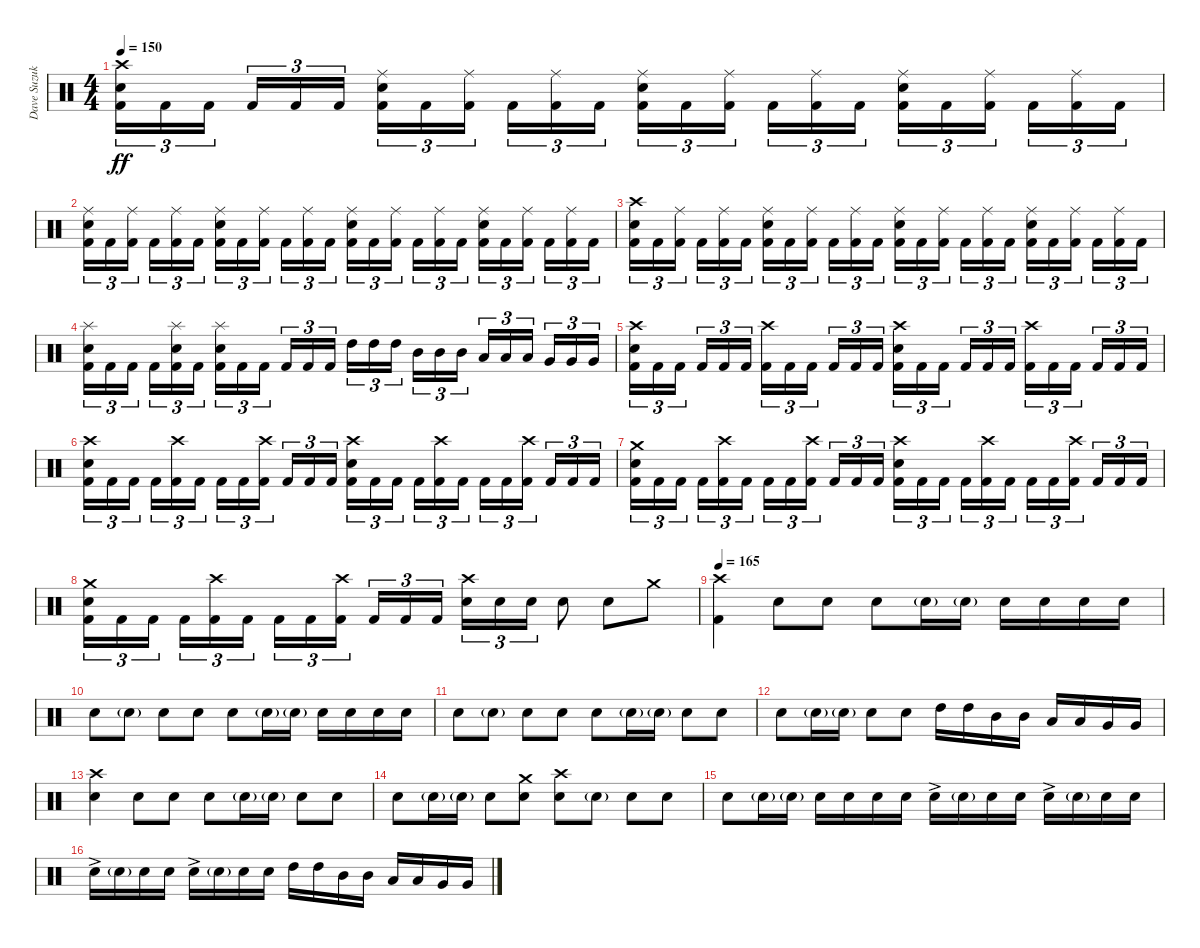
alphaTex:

\track ("Dave Suzuki - Drums" "Dave Suzuk") {instrument percussion}
\staff {score}
\articulation defaults
\ts (4 4)
\tempo 150
\clef neutral
\ks c
("Crash high (hit)" "Electric Snare (hit)" "Kick (hit) 2").16{tu (3 2) dy ff} "Kick (hit) 2".16{tu (3 2)} "Kick (hit) 2".16{tu (3 2) beam splitsecondary} "Kick (hit) 2".16{tu (3 2)} "Kick (hit) 2".16{tu (3 2)} "Kick (hit) 2".16{tu (3 2)} ("Ride (middle)" "Electric Snare (hit)" "Kick (hit) 2").16{tu (3 2)} "Kick (hit) 2".16{tu (3 2)} ("Ride (middle)" "Kick (hit) 2").16{tu (3 2) beam splitsecondary} "Kick (hit) 2".16{tu (3 2)} ("Ride (middle)" "Kick (hit) 2").16{tu (3 2)} "Kick (hit) 2".16{tu (3 2)} ("Ride (middle)" "Electric Snare (hit)" "Kick (hit) 2").16{tu (3 2)} "Kick (hit) 2".16{tu (3 2)} ("Ride (middle)" "Kick (hit) 2").16{tu (3 2) beam splitsecondary} "Kick (hit) 2".16{tu (3 2)} ("Ride (middle)" "Kick (hit) 2").16{tu (3 2)} "Kick (hit) 2".16{tu (3 2)} ("Ride (middle)" "Electric Snare (hit)" "Kick (hit) 2").16{tu (3 2)} "Kick (hit) 2".16{tu (3 2)} ("Ride (middle)" "Kick (hit) 2").16{tu (3 2) beam splitsecondary} "Kick (hit) 2".16{tu (3 2)} ("Ride (middle)" "Kick (hit) 2").16{tu (3 2)} "Kick (hit) 2".16{tu (3 2)} |
("Ride (middle)" "Electric Snare (hit)" "Kick (hit) 2").16{tu (3 2)} "Kick (hit) 2".16{tu (3 2)} ("Ride (middle)" "Kick (hit) 2").16{tu (3 2) beam splitsecondary} "Kick (hit) 2".16{tu (3 2)} ("Ride (middle)" "Kick (hit) 2").16{tu (3 2)} "Kick (hit) 2".16{tu (3 2)} ("Ride (middle)" "Electric Snare (hit)" "Kick (hit) 2").16{tu (3 2)} "Kick (hit) 2".16{tu (3 2)} ("Ride (middle)" "Kick (hit) 2").16{tu (3 2) beam splitsecondary} "Kick (hit) 2".16{tu (3 2)} ("Ride (middle)" "Kick (hit) 2").16{tu (3 2)} "Kick (hit) 2".16{tu (3 2)} ("Ride (middle)" "Electric Snare (hit)" "Kick (hit) 2").16{tu (3 2)} "Kick (hit) 2".16{tu (3 2)} ("Ride (middle)" "Kick (hit) 2").16{tu (3 2) beam splitsecondary} "Kick (hit) 2".16{tu (3 2)} ("Ride (middle)" "Kick (hit) 2").16{tu (3 2)} "Kick (hit) 2".16{tu (3 2)} ("Ride (middle)" "Electric Snare (hit)" "Kick (hit) 2").16{tu (3 2)} "Kick (hit) 2".16{tu (3 2)} ("Ride (middle)" "Kick (hit) 2").16{tu (3 2) beam splitsecondary} "Kick (hit) 2".16{tu (3 2)} ("Ride (middle)" "Kick (hit) 2").16{tu (3 2)} "Kick (hit) 2".16{tu (3 2)} |
("Crash high (hit)" "Electric Snare (hit)" "Kick (hit) 2").16{tu (3 2)} "Kick (hit) 2".16{tu (3 2)} ("Ride (middle)" "Kick (hit) 2").16{tu (3 2) beam splitsecondary} "Kick (hit) 2".16{tu (3 2)} ("Ride (middle)" "Kick (hit) 2").16{tu (3 2)} "Kick (hit) 2".16{tu (3 2)} ("Ride (middle)" "Electric Snare (hit)" "Kick (hit) 2").16{tu (3 2)} "Kick (hit) 2".16{tu (3 2)} ("Ride (middle)" "Kick (hit) 2").16{tu (3 2) beam splitsecondary} "Kick (hit) 2".16{tu (3 2)} ("Ride (middle)" "Kick (hit) 2").16{tu (3 2)} "Kick (hit) 2".16{tu (3 2)} ("Ride (middle)" "Electric Snare (hit)" "Kick (hit) 2").16{tu (3 2)} "Kick (hit) 2".16{tu (3 2)} ("Ride (middle)" "Kick (hit) 2").16{tu (3 2) beam splitsecondary} "Kick (hit) 2".16{tu (3 2)} ("Ride (middle)" "Kick (hit) 2").16{tu (3 2)} "Kick (hit) 2".16{tu (3 2)} ("Ride (middle)" "Electric Snare (hit)" "Kick (hit) 2").16{tu (3 2)} "Kick (hit) 2".16{tu (3 2)} ("Ride (middle)" "Kick (hit) 2").16{tu (3 2) beam splitsecondary} "Kick (hit) 2".16{tu (3 2)} ("Ride (middle)" "Kick (hit) 2").16{tu (3 2)} "Kick (hit) 2".16{tu (3 2)} |
("Splash (hit)" "Electric Snare (hit)" "Kick (hit) 2").16{tu (3 2)} "Kick (hit) 2".16{tu (3 2)} "Kick (hit) 2".16{tu (3 2) beam splitsecondary} "Kick (hit) 2".16{tu (3 2)} ("Splash (hit)" "Electric Snare (hit)" "Kick (hit) 2").16{tu (3 2)} "Kick (hit) 2".16{tu (3 2)} ("Splash (hit)" "Electric Snare (hit)" "Kick (hit) 2").16{tu (3 2)} "Kick (hit) 2".16{tu (3 2)} "Kick (hit) 2".16{tu (3 2) beam splitsecondary} "Kick (hit) 2".16{tu (3 2)} "Kick (hit) 2".16{tu (3 2)} "Kick (hit) 2".16{tu (3 2)} "High Tom (hit)".16{tu (3 2)} "High Tom (hit)".16{tu (3 2)} "High Tom (hit)".16{tu (3 2) beam splitsecondary} "Mid Tom (hit)".16{tu (3 2)} "Mid Tom (hit)".16{tu (3 2)} "Mid Tom (hit)".16{tu (3 2)} "Low Tom (hit)".16{tu (3 2)} "Low Tom (hit)".16{tu (3 2)} "Low Tom (hit)".16{tu (3 2) beam splitsecondary} "Very Low Tom (hit)".16{tu (3 2)} "Very Low Tom (hit)".16{tu (3 2)} "Very Low Tom (hit)".16{tu (3 2)} |
("Crash high (hit)" "Electric Snare (hit)" "Kick (hit) 2").16{tu (3 2)} "Kick (hit) 2".16{tu (3 2)} "Kick (hit) 2".16{tu (3 2) beam splitsecondary} "Kick (hit) 2".16{tu (3 2)} "Kick (hit) 2".16{tu (3 2)} "Kick (hit) 2".16{tu (3 2)} ("Crash high (hit)" "Kick (hit) 2").16{tu (3 2)} "Kick (hit) 2".16{tu (3 2)} "Kick (hit) 2".16{tu (3 2) beam splitsecondary} "Kick (hit) 2".16{tu (3 2)} "Kick (hit) 2".16{tu (3 2)} "Kick (hit) 2".16{tu (3 2)} ("Crash high (hit)" "Electric Snare (hit)" "Kick (hit) 2").16{tu (3 2)} "Kick (hit) 2".16{tu (3 2)} "Kick (hit) 2".16{tu (3 2) beam splitsecondary} "Kick (hit) 2".16{tu (3 2)} "Kick (hit) 2".16{tu (3 2)} "Kick (hit) 2".16{tu (3 2)} ("Crash high (hit)" "Kick (hit) 2").16{tu (3 2)} "Kick (hit) 2".16{tu (3 2)} "Kick (hit) 2".16{tu (3 2) beam splitsecondary} "Kick (hit) 2".16{tu (3 2)} "Kick (hit) 2".16{tu (3 2)} "Kick (hit) 2".16{tu (3 2)} |
("Crash high (hit)" "Electric Snare (hit)" "Kick (hit) 2").16{tu (3 2)} "Kick (hit) 2".16{tu (3 2)} "Kick (hit) 2".16{tu (3 2) beam splitsecondary} "Kick (hit) 2".16{tu (3 2)} ("Crash high (hit)" "Kick (hit) 2").16{tu (3 2)} "Kick (hit) 2".16{tu (3 2)} "Kick (hit) 2".16{tu (3 2)} "Kick (hit) 2".16{tu (3 2)} ("Crash high (hit)" "Kick (hit) 2").16{tu (3 2) beam splitsecondary} "Kick (hit) 2".16{tu (3 2)} "Kick (hit) 2".16{tu (3 2)} "Kick (hit) 2".16{tu (3 2)} ("Crash high (hit)" "Electric Snare (hit)" "Kick (hit) 2").16{tu (3 2)} "Kick (hit) 2".16{tu (3 2)} "Kick (hit) 2".16{tu (3 2) beam splitsecondary} "Kick (hit) 2".16{tu (3 2)} ("Crash high (hit)" "Kick (hit) 2").16{tu (3 2)} "Kick (hit) 2".16{tu (3 2)} "Kick (hit) 2".16{tu (3 2)} "Kick (hit) 2".16{tu (3 2)} ("Crash high (hit)" "Kick (hit) 2").16{tu (3 2) beam splitsecondary} "Kick (hit) 2".16{tu (3 2)} "Kick (hit) 2".16{tu (3 2)} "Kick (hit) 2".16{tu (3 2)} |
("Crash medium (hit)" "Electric Snare (hit)" "Kick (hit) 2").16{tu (3 2)} "Kick (hit) 2".16{tu (3 2)} "Kick (hit) 2".16{tu (3 2) beam splitsecondary} "Kick (hit) 2".16{tu (3 2)} ("Crash high (hit)" "Kick (hit) 2").16{tu (3 2)} "Kick (hit) 2".16{tu (3 2)} "Kick (hit) 2".16{tu (3 2)} "Kick (hit) 2".16{tu (3 2)} ("Crash high (hit)" "Kick (hit) 2").16{tu (3 2) beam splitsecondary} "Kick (hit) 2".16{tu (3 2)} "Kick (hit) 2".16{tu (3 2)} "Kick (hit) 2".16{tu (3 2)} ("Crash high (hit)" "Electric Snare (hit)" "Kick (hit) 2").16{tu (3 2)} "Kick (hit) 2".16{tu (3 2)} "Kick (hit) 2".16{tu (3 2) beam splitsecondary} "Kick (hit) 2".16{tu (3 2)} ("Crash high (hit)" "Kick (hit) 2").16{tu (3 2)} "Kick (hit) 2".16{tu (3 2)} "Kick (hit) 2".16{tu (3 2)} "Kick (hit) 2".16{tu (3 2)} ("Crash high (hit)" "Kick (hit) 2").16{tu (3 2) beam splitsecondary} "Kick (hit) 2".16{tu (3 2)} "Kick (hit) 2".16{tu (3 2)} "Kick (hit) 2".16{tu (3 2)} |
("Crash medium (hit)" "Electric Snare (hit)" "Kick (hit) 2").16{tu (3 2)} "Kick (hit) 2".16{tu (3 2)} "Kick (hit) 2".16{tu (3 2) beam splitsecondary} "Kick (hit) 2".16{tu (3 2)} ("Crash high (hit)" "Kick (hit) 2").16{tu (3 2)} "Kick (hit) 2".16{tu (3 2)} "Kick (hit) 2".16{tu (3 2)} "Kick (hit) 2".16{tu (3 2)} ("Crash high (hit)" "Kick (hit) 2").16{tu (3 2) beam splitsecondary} "Kick (hit) 2".16{tu (3 2)} "Kick (hit) 2".16{tu (3 2)} "Kick (hit) 2".16{tu (3 2)} ("Crash high (hit)" "Electric Snare (hit)").16{tu (3 2)} "Electric Snare (hit)".16{tu (3 2)} "Electric Snare (hit)".16{tu (3 2)} "Electric Snare (hit)".8 "Electric Snare (hit)".8 "Crash medium (hit)".8 |
\tempo 165
("Crash high (hit)" "Kick (hit) 2").4 "Electric Snare (hit)".8 "Electric Snare (hit)".8 "Electric Snare (hit)".8 "Electric Snare (hit)"{g}.16 "Electric Snare (hit)"{g}.16 "Electric Snare (hit)".16 "Electric Snare (hit)".16 "Electric Snare (hit)".16 "Electric Snare (hit)".16 |
"Electric Snare (hit)".8 "Electric Snare (hit)"{g}.8 "Electric Snare (hit)".8 "Electric Snare (hit)".8 "Electric Snare (hit)".8 "Electric Snare (hit)"{g}.16 "Electric Snare (hit)"{g}.16 "Electric Snare (hit)".16 "Electric Snare (hit)".16 "Electric Snare (hit)".16 "Electric Snare (hit)".16 |
"Electric Snare (hit)".8 "Electric Snare (hit)"{g}.8 "Electric Snare (hit)".8 "Electric Snare (hit)".8 "Electric Snare (hit)".8 "Electric Snare (hit)"{g}.16 "Electric Snare (hit)"{g}.16 "Electric Snare (hit)".8 "Electric Snare (hit)".8 |
"Electric Snare (hit)".8 "Electric Snare (hit)"{g}.16 "Electric Snare (hit)"{g}.16 "Electric Snare (hit)".8 "Electric Snare (hit)".8 "High Tom (hit)".16 "High Tom (hit)".16 "Mid Tom (hit)".16 "Mid Tom (hit)".16 "Low Tom (hit)".16 "Low Tom (hit)".16 "Very Low Tom (hit)".16 "Very Low Tom (hit)".16 |
("Crash high (hit)" "Electric Snare (hit)").4 "Electric Snare (hit)".8 "Electric Snare (hit)".8 "Electric Snare (hit)".8 "Electric Snare (hit)"{g}.16 "Electric Snare (hit)"{g}.16 "Electric Snare (hit)".8 "Electric Snare (hit)".8 |
"Electric Snare (hit)".8 "Electric Snare (hit)"{g}.16 "Electric Snare (hit)"{g}.16 "Electric Snare (hit)".8 ("Crash medium (hit)" "Electric Snare (hit)").8 ("Crash high (hit)" "Electric Snare (hit)").8 "Electric Snare (hit)"{g}.8 "Electric Snare (hit)".8 "Electric Snare (hit)".8 |
"Electric Snare (hit)".8 "Electric Snare (hit)"{g}.16 "Electric Snare (hit)"{g}.16 "Electric Snare (hit)".16 "Electric Snare (hit)".16 "Electric Snare (hit)".16 "Electric Snare (hit)".16 "Electric Snare (hit)"{ac}.16 "Electric Snare (hit)"{g}.16 "Electric Snare (hit)".16 "Electric Snare (hit)".16 "Electric Snare (hit)"{ac}.16 "Electric Snare (hit)"{g}.16 "Electric Snare (hit)".16 "Electric Snare (hit)".16 |
"Electric Snare (hit)"{ac}.16 "Electric Snare (hit)"{g}.16 "Electric Snare (hit)".16 "Electric Snare (hit)".16 "Electric Snare (hit)"{ac}.16 "Electric Snare (hit)"{g}.16 "Electric Snare (hit)".16 "Electric Snare (hit)".16 "High Tom (hit)".16 "High Tom (hit)".16 "Mid Tom (hit)".16 "Mid Tom (hit)".16 "Low Tom (hit)".16 "Low Tom (hit)".16 "Very Low Tom (hit)".16 "Very Low Tom (hit)".16
